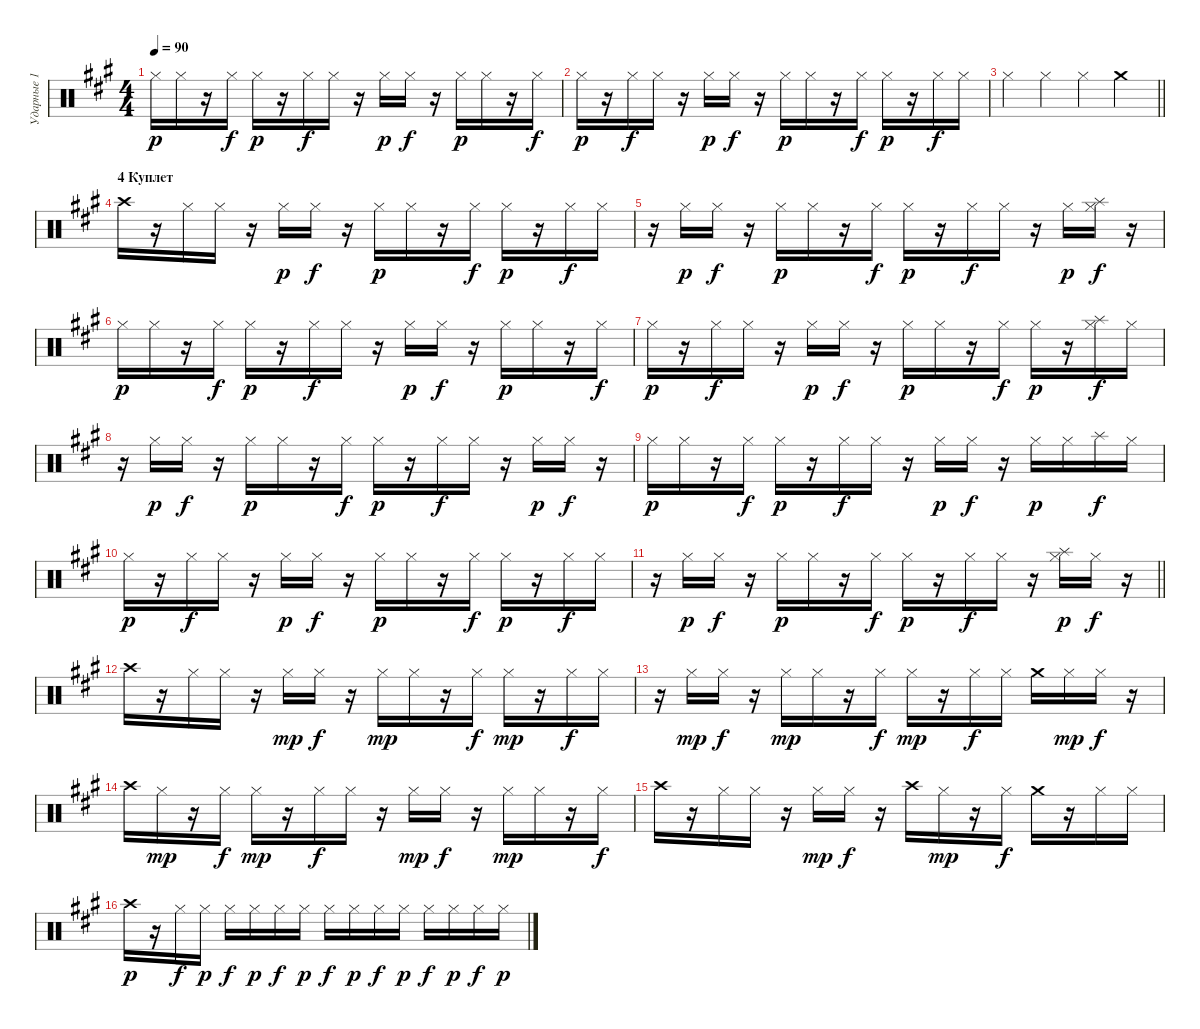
\track ("Ударные 1" "Ударные 1") {instrument percussion}
\staff {score}
\articulation defaults
\ts (4 4)
\tempo 90
\clef neutral
\ks f#minor "Hi-Hat (closed)".16{dy p} "Hi-Hat (closed)".16
r.16 "Hi-Hat (closed)".16{dy f} "Hi-Hat (closed)".16{dy p} r.16 "Hi-Hat (closed)".16{dy f} "Hi-Hat (closed)".16 r.16 "Hi-Hat (closed)".16{dy p} "Hi-Hat (closed)".16{dy f} r.16 "Hi-Hat (closed)".16{dy p} "Hi-Hat (closed)".16 r.16 "Hi-Hat (closed)".16{dy f} |
"Hi-Hat (closed)".16{dy p} r.16 "Hi-Hat (closed)".16{dy f} "Hi-Hat (closed)".16 r.16 "Hi-Hat (closed)".16{dy p} "Hi-Hat (closed)".16{dy f} r.16 "Hi-Hat (closed)".16{dy p} "Hi-Hat (closed)".16 r.16 "Hi-Hat (closed)".16{dy f} "Hi-Hat (closed)".16{dy p} r.16 "Hi-Hat (closed)".16{dy f} "Hi-Hat (closed)".16 |
\barLineRight lightlight "Hi-Hat (closed)".4 "Hi-Hat (closed)".4 "Hi-Hat (closed)".4 "Crash medium (hit)".4
|
\section ("" "4 Куплет")
"Crash high (hit)".16 r.16 "Hi-Hat (closed)".16 "Hi-Hat (closed)".16 r.16 "Hi-Hat (closed)".16{dy p} "Hi-Hat (closed)".16{dy f} r.16 "Hi-Hat (closed)".16{dy p} "Hi-Hat (closed)".16 r.16 "Hi-Hat (closed)".16{dy f} "Hi-Hat (closed)".16{dy p} r.16 "Hi-Hat (closed)".16{dy f} "Hi-Hat (closed)".16 |
r.16 "Hi-Hat (closed)".16{dy p} "Hi-Hat (closed)".16{dy f} r.16 "Hi-Hat (closed)".16{dy p} "Hi-Hat (closed)".16 r.16 "Hi-Hat (closed)".16{dy f} "Hi-Hat (closed)".16{dy p} r.16 "Hi-Hat (closed)".16{dy f} "Hi-Hat (closed)".16 r.16 "Hi-Hat (closed)".16{dy p} ("Hi-Hat (closed)" "Splash (hit)").16{dy f} r.16 |
"Hi-Hat (closed)".16{dy p} "Hi-Hat (closed)".16 r.16 "Hi-Hat (closed)".16{dy f} "Hi-Hat (closed)".16{dy p} r.16 "Hi-Hat (closed)".16{dy f} "Hi-Hat (closed)".16 r.16 "Hi-Hat (closed)".16{dy p} "Hi-Hat (closed)".16{dy f} r.16 "Hi-Hat (closed)".16{dy p} "Hi-Hat (closed)".16 r.16 "Hi-Hat (closed)".16{dy f} |
"Hi-Hat (closed)".16{dy p} r.16 "Hi-Hat (closed)".16{dy f} "Hi-Hat (closed)".16 r.16 "Hi-Hat (closed)".16{dy p} "Hi-Hat (closed)".16{dy f} r.16 "Hi-Hat (closed)".16{dy p} "Hi-Hat (closed)".16 r.16 "Hi-Hat (closed)".16{dy f} "Hi-Hat (closed)".16{dy p} r.16 ("Hi-Hat (closed)" "Splash (hit)").16{dy f} "Hi-Hat (closed)".16 |
r.16 "Hi-Hat (closed)".16{dy p} "Hi-Hat (closed)".16{dy f} r.16 "Hi-Hat (closed)".16{dy p} "Hi-Hat (closed)".16 r.16 "Hi-Hat (closed)".16{dy f} "Hi-Hat (closed)".16{dy p} r.16 "Hi-Hat (closed)".16{dy f} "Hi-Hat (closed)".16 r.16 "Hi-Hat (closed)".16{dy p} "Hi-Hat (closed)".16{dy f} r.16 |
"Hi-Hat (closed)".16{dy p} "Hi-Hat (closed)".16 r.16 "Hi-Hat (closed)".16{dy f} "Hi-Hat (closed)".16{dy p} r.16 "Hi-Hat (closed)".16{dy f} "Hi-Hat (closed)".16 r.16 "Hi-Hat (closed)".16{dy p} "Hi-Hat (closed)".16{dy f} r.16 "Hi-Hat (closed)".16{dy p} "Hi-Hat (closed)".16 "Splash (hit)".16{dy f} "Hi-Hat (closed)".16 |
"Hi-Hat (closed)".16{dy p} r.16 "Hi-Hat (closed)".16{dy f} "Hi-Hat (closed)".16 r.16 "Hi-Hat (closed)".16{dy p} "Hi-Hat (closed)".16{dy f} r.16 "Hi-Hat (closed)".16{dy p} "Hi-Hat (closed)".16 r.16 "Hi-Hat (closed)".16{dy f} "Hi-Hat (closed)".16{dy p} r.16 "Hi-Hat (closed)".16{dy f} "Hi-Hat (closed)".16 |
\barLineRight lightlight
r.16 "Hi-Hat (closed)".16{dy p} "Hi-Hat (closed)".16{dy f} r.16 "Hi-Hat (closed)".16{dy p} "Hi-Hat (closed)".16 r.16 "Hi-Hat (closed)".16{dy f} "Hi-Hat (closed)".16{dy p} r.16 "Hi-Hat (closed)".16{dy f} "Hi-Hat (closed)".16 r.16 ("Hi-Hat (closed)" "Splash (hit)").16{dy p} "Hi-Hat (closed)".16{dy f} r.16 |
"Crash high (hit)".16 r.16 "Hi-Hat (closed)".16 "Hi-Hat (closed)".16 r.16 "Hi-Hat (closed)".16{dy mp} "Hi-Hat (closed)".16{dy f} r.16 "Hi-Hat (closed)".16{dy mp} "Hi-Hat (closed)".16 r.16 "Hi-Hat (closed)".16{dy f} "Hi-Hat (closed)".16{dy mp} r.16 "Hi-Hat (closed)".16{dy f} "Hi-Hat (closed)".16 |
r.16 "Hi-Hat (closed)".16{dy mp} "Hi-Hat (closed)".16{dy f} r.16 "Hi-Hat (closed)".16{dy mp} "Hi-Hat (closed)".16 r.16 "Hi-Hat (closed)".16{dy f} "Hi-Hat (closed)".16{dy mp} r.16 "Hi-Hat (closed)".16{dy f} "Hi-Hat (closed)".16 "Crash medium (hit)".16 "Hi-Hat (closed)".16{dy mp} "Hi-Hat (closed)".16{dy f} r.16 |
"Crash high (hit)".16 "Hi-Hat (closed)".16{dy mp} r.16 "Hi-Hat (closed)".16{dy f} "Hi-Hat (closed)".16{dy mp} r.16 "Hi-Hat (closed)".16{dy f} "Hi-Hat (closed)".16 r.16 "Hi-Hat (closed)".16{dy mp} "Hi-Hat (closed)".16{dy f} r.16 "Hi-Hat (closed)".16{dy mp} "Hi-Hat (closed)".16 r.16 "Hi-Hat (closed)".16{dy f} |
"Crash high (hit)".16 r.16 "Hi-Hat (closed)".16 "Hi-Hat (closed)".16 r.16 "Hi-Hat (closed)".16{dy mp} "Hi-Hat (closed)".16{dy f} r.16 "Crash high (hit)".16 "Hi-Hat (closed)".16{dy mp} r.16 "Hi-Hat (closed)".16{dy f} "Crash medium (hit)".16 r.16 "Hi-Hat (closed)".16 "Hi-Hat (closed)".16 |
"Crash high (hit)".16{dy p} r.16 "Hi-Hat (closed)".16{dy f} "Hi-Hat (closed)".16{dy p} "Hi-Hat (closed)".16{dy f} "Hi-Hat (closed)".16{dy p} "Hi-Hat (closed)".16{dy f} "Hi-Hat (closed)".16{dy p} "Hi-Hat (closed)".16{dy f} "Hi-Hat (closed)".16{dy p} "Hi-Hat (closed)".16{dy f} "Hi-Hat (closed)".16{dy p} "Hi-Hat (closed)".16{dy f} "Hi-Hat (closed)".16{dy p} "Hi-Hat (closed)".16{dy f} "Hi-Hat (closed)".16{dy p}
